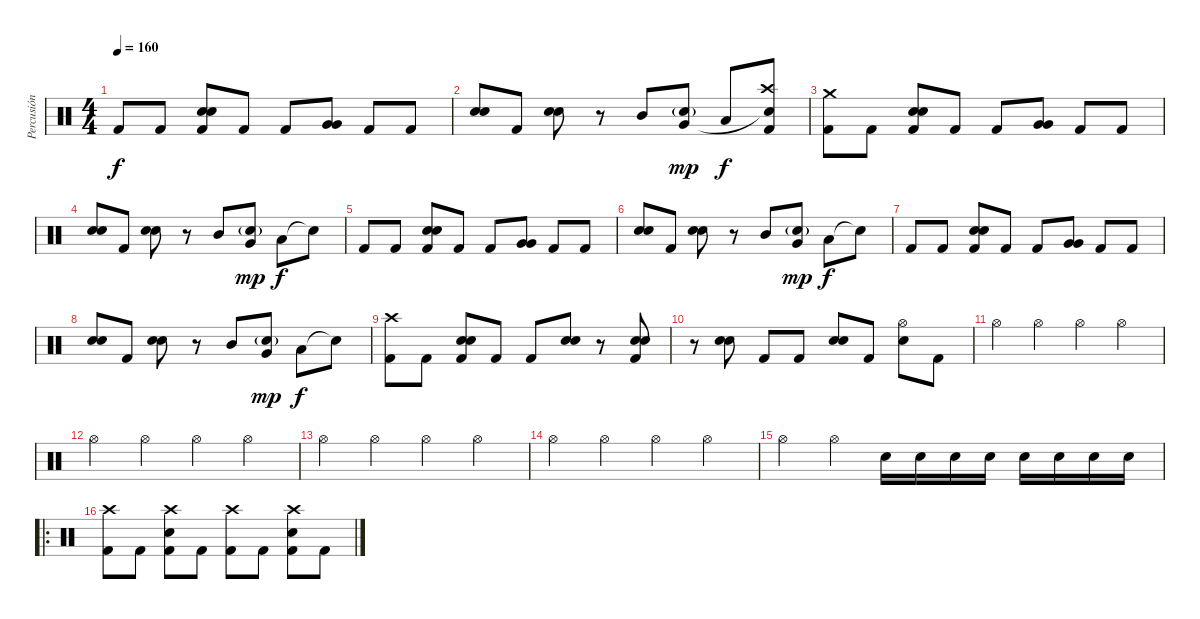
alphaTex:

\track ("Percusión" "Percusión") {instrument percussion}
\staff {score}
\articulation defaults
\ts (4 4)
\tempo 160
\clef neutral
\ks c "Kick (hit) 2".8{dy f} "Kick (hit) 2".8
("Electric Snare (hit)" "Electric Snare (hit)" "Kick (hit) 2").8{bd 480} "Kick (hit) 2".8 "Kick (hit) 2".8 ("Very Low Tom (hit)" "Very Low Tom (hit)").8{bd 480} "Kick (hit) 2".8 "Kick (hit) 2".8 |
("Electric Snare (hit)" "Electric Snare (hit)").8{bd 480} "Kick (hit) 2".8 ("Electric Snare (hit)" "Electric Snare (hit)").8{bd 480} r.8 "Mid Tom (hit)".8 ("Electric Snare (hit)"{g} "Very Low Tom (hit)").8{dy mp} "Low Floor Tom (hit)".8{dy f} ("Crash high (hit)" "Snare (hit)"{t} "Kick (hit) 2").8 |
("Crash medium (hit)" "Kick (hit) 2").8 "Kick (hit) 2".8 ("Electric Snare (hit)" "Electric Snare (hit)" "Kick (hit) 2").8{bd 480} "Kick (hit) 2".8 "Kick (hit) 2".8 ("Very Low Tom (hit)" "Very Low Tom (hit)").8{bd 480} "Kick (hit) 2".8 "Kick (hit) 2".8 |
("Electric Snare (hit)" "Electric Snare (hit)").8{bd 480} "Kick (hit) 2".8 ("Electric Snare (hit)" "Electric Snare (hit)").8{bd 480} r.8 "Mid Tom (hit)".8 ("Electric Snare (hit)"{g} "Very Low Tom (hit)").8{dy mp} "Low Floor Tom (hit)".8{dy f} "Snare (hit)"{t}.8 |
"Kick (hit) 2".8 "Kick (hit) 2".8 ("Electric Snare (hit)" "Electric Snare (hit)" "Kick (hit) 2").8{bd 480} "Kick (hit) 2".8 "Kick (hit) 2".8 ("Very Low Tom (hit)" "Very Low Tom (hit)").8{bd 480} "Kick (hit) 2".8 "Kick (hit) 2".8 |
("Electric Snare (hit)" "Electric Snare (hit)").8{bd 480} "Kick (hit) 2".8 ("Electric Snare (hit)" "Electric Snare (hit)").8{bd 480} r.8 "Mid Tom (hit)".8 ("Electric Snare (hit)"{g} "Very Low Tom (hit)").8{dy mp} "Low Floor Tom (hit)".8{dy f} "Snare (hit)"{t}.8 |
"Kick (hit) 2".8 "Kick (hit) 2".8 ("Electric Snare (hit)" "Electric Snare (hit)" "Kick (hit) 2").8{bd 480} "Kick (hit) 2".8 "Kick (hit) 2".8 ("Very Low Tom (hit)" "Very Low Tom (hit)").8{bd 480} "Kick (hit) 2".8 "Kick (hit) 2".8 |
("Electric Snare (hit)" "Electric Snare (hit)").8{bd 480} "Kick (hit) 2".8 ("Electric Snare (hit)" "Electric Snare (hit)").8{bd 480} r.8 "Mid Tom (hit)".8 ("Electric Snare (hit)"{g} "Very Low Tom (hit)").8{dy mp} "Low Floor Tom (hit)".8{dy f} "Snare (hit)"{t}.8 |
("Crash high (hit)" "Kick (hit) 2").8 "Kick (hit) 2".8 ("Electric Snare (hit)" "Electric Snare (hit)" "Kick (hit) 2").8{bd 480} "Kick (hit) 2".8 "Kick (hit) 2".8 ("Electric Snare (hit)" "Electric Snare (hit)").8{bd 480} r.8 ("Electric Snare (hit)" "Electric Snare (hit)" "Kick (hit) 2").8{bd 60} |
r.8 ("Electric Snare (hit)" "Electric Snare (hit)").8 "Kick (hit) 2".8 "Kick (hit) 2".8{bd 480} ("Electric Snare (hit)" "Electric Snare (hit)").8 "Kick (hit) 2".8 ("Hi-Hat (open)" "Electric Snare (hit)").8 "Kick (hit) 2".8 |
"Hi-Hat (open)".4 "Hi-Hat (open)".4 "Hi-Hat (open)".4 "Hi-Hat (open)".4 |
"Hi-Hat (open)".4 "Hi-Hat (open)".4 "Hi-Hat (open)".4 "Hi-Hat (open)".4 |
"Hi-Hat (open)".4 "Hi-Hat (open)".4 "Hi-Hat (open)".4 "Hi-Hat (open)".4 |
"Hi-Hat (open)".4 "Hi-Hat (open)".4 "Hi-Hat (open)".4 "Hi-Hat (open)".4 |
"Hi-Hat (open)".4 "Hi-Hat (open)".4 "Electric Snare (hit)".16 "Electric Snare (hit)".16 "Electric Snare (hit)".16 "Electric Snare (hit)".16 "Electric Snare (hit)".16 "Electric Snare (hit)".16 "Electric Snare (hit)".16 "Electric Snare (hit)".16 |
\ro
("Crash high (hit)" "Kick (hit) 2").8 "Kick (hit) 2".8 ("Crash high (hit)" "Kick (hit) 2" "Electric Snare (hit)").8 "Kick (hit) 2".8 ("Crash high (hit)" "Kick (hit) 2").8 "Kick (hit) 2".8 ("Crash high (hit)" "Kick (hit) 2" "Electric Snare (hit)").8 "Kick (hit) 2".8
